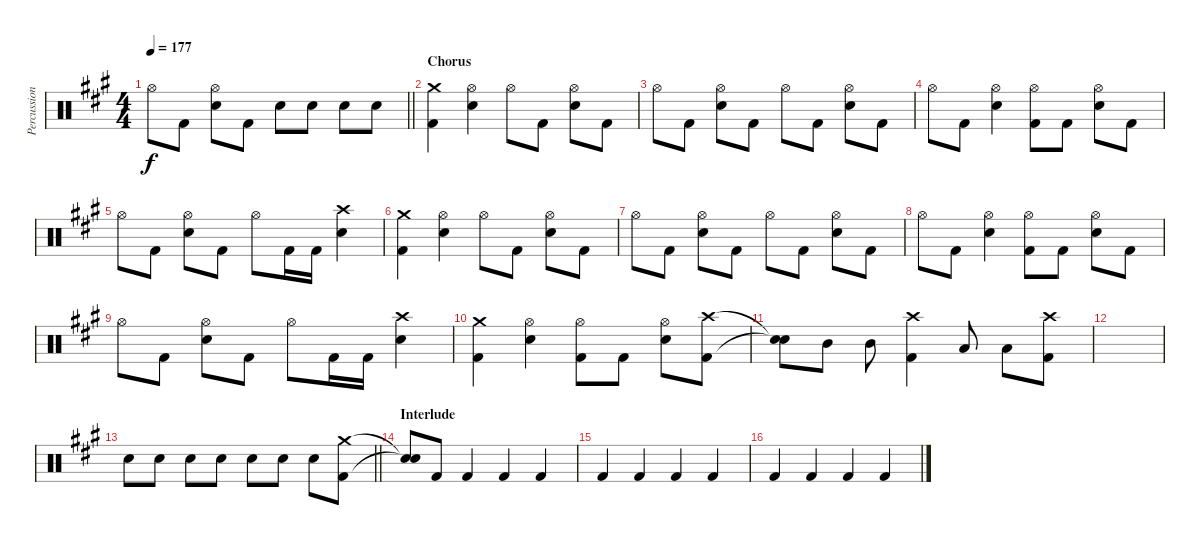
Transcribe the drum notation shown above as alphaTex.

\track ("Percussion" "Percussion") {instrument percussion}
\staff {score}
\articulation defaults
\ts (4 4)
\tempo 177
\clef neutral
\barLineRight lightlight
\ks a "Hi-Hat (open)".8{dy f} "Kick (hit) 2".8
("Hi-Hat (open)" "Snare (hit) 2").8 "Kick (hit) 2".8 "Snare (hit) 2".8 "Snare (hit) 2".8 "Snare (hit) 2".8 "Snare (hit) 2".8 |
\section ("" "Chorus")
("Kick (hit) 2" "Crash medium (hit)").4 ("Hi-Hat (open)" "Snare (hit) 2").4 "Hi-Hat (open)".8 "Kick (hit) 2".8 ("Hi-Hat (open)" "Snare (hit) 2").8 "Kick (hit) 2".8 |
"Hi-Hat (open)".8 "Kick (hit) 2".8 ("Hi-Hat (open)" "Snare (hit) 2").8 "Kick (hit) 2".8 "Hi-Hat (open)".8 "Kick (hit) 2".8 ("Hi-Hat (open)" "Snare (hit) 2").8 "Kick (hit) 2".8 |
"Hi-Hat (open)".8 "Kick (hit) 2".8 ("Hi-Hat (open)" "Snare (hit) 2").4 ("Hi-Hat (open)" "Kick (hit) 2").8 "Kick (hit) 2".8 ("Hi-Hat (open)" "Snare (hit) 2").8 "Kick (hit) 2".8 |
"Hi-Hat (open)".8 "Kick (hit) 2".8 ("Hi-Hat (open)" "Snare (hit) 2").8 "Kick (hit) 2".8 "Hi-Hat (open)".8 "Kick (hit) 2".16 "Kick (hit) 2".16 ("Snare (hit) 2" "Crash high (hit)").4 |
("Kick (hit) 2" "Crash medium (hit)").4 ("Hi-Hat (open)" "Snare (hit) 2").4 "Hi-Hat (open)".8 "Kick (hit) 2".8 ("Hi-Hat (open)" "Snare (hit) 2").8 "Kick (hit) 2".8 |
"Hi-Hat (open)".8 "Kick (hit) 2".8 ("Hi-Hat (open)" "Snare (hit) 2").8 "Kick (hit) 2".8 "Hi-Hat (open)".8 "Kick (hit) 2".8 ("Hi-Hat (open)" "Snare (hit) 2").8 "Kick (hit) 2".8 |
"Hi-Hat (open)".8 "Kick (hit) 2".8 ("Hi-Hat (open)" "Snare (hit) 2").4 ("Hi-Hat (open)" "Kick (hit) 2").8 "Kick (hit) 2".8 ("Hi-Hat (open)" "Snare (hit) 2").8 "Kick (hit) 2".8 |
"Hi-Hat (open)".8 "Kick (hit) 2".8 ("Hi-Hat (open)" "Snare (hit) 2").8 "Kick (hit) 2".8 "Hi-Hat (open)".8 "Kick (hit) 2".16 "Kick (hit) 2".16 ("Snare (hit) 2" "Crash high (hit)").4 |
("Kick (hit) 2" "Crash medium (hit)").4 ("Hi-Hat (open)" "Snare (hit) 2").4 ("Hi-Hat (open)" "Kick (hit) 2").8 "Kick (hit) 2".8 ("Hi-Hat (open)" "Snare (hit) 2").8 ("Kick (hit) 2" "Crash high (hit)").8 |
("Snare (hit)"{t} "Snare (hit)"{t}).8 "Mid Tom (hit)".8 "Mid Tom (hit)".8 ("Kick (hit) 2" "Crash high (hit)").4 "Low Tom (hit)".8 "Low Tom (hit)".8 ("Kick (hit) 2" "Crash high (hit)").8 |
|
\barLineRight lightlight "Snare (hit) 2".8 "Snare (hit) 2".8 "Snare (hit) 2".8 "Snare (hit) 2".8 "Snare (hit) 2".8 "Snare (hit) 2".8 "Snare (hit) 2".8
("Kick (hit) 2" "Crash medium (hit)").8 |
\section ("" "Interlude")
("Snare (hit)"{t} "Snare (hit)"{t}).8 "Kick (hit) 2".8 "Kick (hit) 2".4 "Kick (hit) 2".4 "Kick (hit) 2".4 |
"Kick (hit) 2".4 "Kick (hit) 2".4 "Kick (hit) 2".4 "Kick (hit) 2".4 |
"Kick (hit) 2".4 "Kick (hit) 2".4 "Kick (hit) 2".4 "Kick (hit) 2".4
